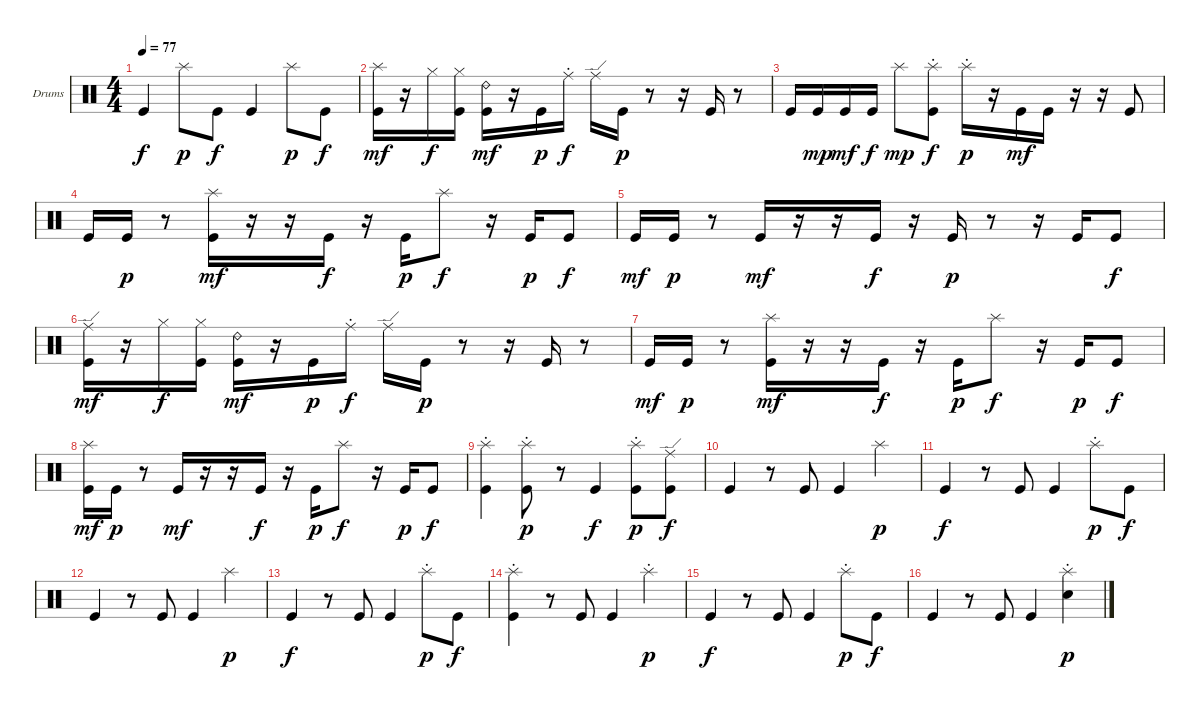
\bracketExtendMode groupsimilarinstruments
\firstSystemTrackNameOrientation horizontal
\otherSystemsTrackNameOrientation horizontal
\track ("Ударники Григорий Гурьянов" "Drums") {instrument percussion}
\staff {score}
\articulation defaults
\ts (4 4)
\tempo 77
\clef neutral
\ks c "Kick (hit)".4{dy f} "Splash (hit)".8{dy p} "Kick (hit)".8{dy f} "Kick (hit)".4 "Splash (hit)".8{dy p} "Kick (hit)".8{dy f}
|
("Kick (hit)" "Splash (hit)").16{dy mf} r.16 "Hi-Hat (closed)".16{dy f} ("Kick (hit)" "Hi-Hat (closed)").16 ("Kick (hit)" "Ride (bell) 2").16{dy mf} r.16 "Kick (hit)".16{dy p} "Ride (middle)"{st}.16{dy f} "Ride (edge)".16 "Kick (hit)".16{dy p} r.8 r.16 "Kick (hit)".16 r.8 |
"Kick (hit)".16 "Kick (hit)".16{dy mp} "Kick (hit)".16{dy mf} "Kick (hit)".16{dy f} "Splash (hit)".8{dy mp} ("Kick (hit)" "Splash (hit)"{st}).8{dy f} "Splash (hit)"{st}.16{dy p} r.16 "Kick (hit)".16{dy mf} "Kick (hit)".16 r.16 r.16 "Kick (hit)".8 |
"Kick (hit)".16 "Kick (hit)".16{dy p} r.8 ("Kick (hit)" "Splash (hit)").16{dy mf} r.16 r.16 "Kick (hit)".16{dy f} r.16 "Kick (hit)".16{dy p} "Splash (hit)".8{dy f} r.16 "Kick (hit)".16{dy p} "Kick (hit)".8{dy f} |
"Kick (hit)".16{dy mf} "Kick (hit)".16{dy p} r.8 "Kick (hit)".16{dy mf} r.16 r.16 "Kick (hit)".16{dy f} r.16 "Kick (hit)".16{dy p} r.8 r.16 "Kick (hit)".16 "Kick (hit)".8{dy f} |
("Kick (hit)" "Ride (edge)").16{dy mf} r.16 "Hi-Hat (closed)".16{dy f} ("Kick (hit)" "Hi-Hat (closed)").16 ("Kick (hit)" "Ride (bell) 2").16{dy mf} r.16 "Kick (hit)".16{dy p} "Ride (middle)"{st}.16{dy f} "Ride (edge)".16 "Kick (hit)".16{dy p} r.8 r.16 "Kick (hit)".16 r.8 |
"Kick (hit)".16{dy mf} "Kick (hit)".16{dy p} r.8 ("Kick (hit)" "Splash (hit)").16{dy mf} r.16 r.16 "Kick (hit)".16{dy f} r.16 "Kick (hit)".16{dy p} "Splash (hit)".8{dy f} r.16 "Kick (hit)".16{dy p} "Kick (hit)".8{dy f} |
("Kick (hit)" "Splash (hit)").16{dy mf} "Kick (hit)".16{dy p} r.8 "Kick (hit)".16{dy mf} r.16 r.16 "Kick (hit)".16{dy f} r.16 "Kick (hit)".16{dy p} "Splash (hit)".8{dy f} r.16 "Kick (hit)".16{dy p} "Kick (hit)".8{dy f} |
("Kick (hit)" "Splash (hit)"{st}).4 ("Splash (hit)"{st} "Kick (hit)").8{dy p} r.8 "Kick (hit)".4{dy f} ("Splash (hit)"{st} "Kick (hit)").8{dy p} ("Kick (hit)" "Ride (edge)").8{dy f} |
"Kick (hit)".4 r.8 "Kick (hit)".8 "Kick (hit)".4 "Splash (hit)".4{dy p} |
"Kick (hit)".4{dy f} r.8 "Kick (hit)".8 "Kick (hit)".4 "Splash (hit)"{st}.8{dy p} "Kick (hit)".8{dy f} |
"Kick (hit)".4 r.8 "Kick (hit)".8 "Kick (hit)".4 "Splash (hit)".4{dy p} |
"Kick (hit)".4{dy f} r.8 "Kick (hit)".8 "Kick (hit)".4 "Splash (hit)"{st}.8{dy p} "Kick (hit)".8{dy f} |
("Kick (hit)" "Splash (hit)"{st}).4 r.8 "Kick (hit)".8 "Kick (hit)".4 "Splash (hit)"{st}.4{dy p} |
"Kick (hit)".4{dy f} r.8 "Kick (hit)".8 "Kick (hit)".4 "Splash (hit)"{st}.8{dy p} "Kick (hit)".8{dy f} |
"Kick (hit)".4 r.8 "Kick (hit)".8 "Kick (hit)".4 ("Splash (hit)"{st} "Snare (hit) 2").4{dy p}
